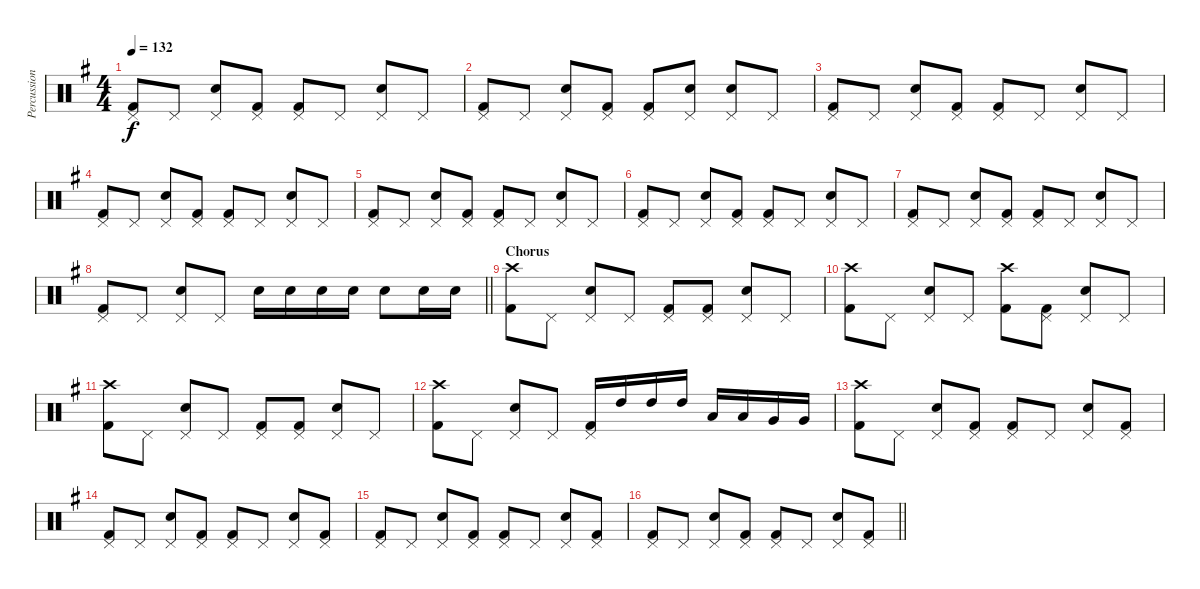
\track ("Percussion" "Percussion") {instrument percussion}
\staff {score}
\articulation defaults
\ts (4 4)
\tempo 132
\clef neutral
\ks g
("Pedal Hi-Hat (hit)" "Kick (hit) 2").8{dy f} "Pedal Hi-Hat (hit)".8 ("Pedal Hi-Hat (hit)" "Snare (hit) 2").8 ("Pedal Hi-Hat (hit)" "Kick (hit) 2").8 ("Pedal Hi-Hat (hit)" "Kick (hit) 2").8 "Pedal Hi-Hat (hit)".8 ("Pedal Hi-Hat (hit)" "Snare (hit) 2").8 "Pedal Hi-Hat (hit)".8 |
("Pedal Hi-Hat (hit)" "Kick (hit) 2").8 "Pedal Hi-Hat (hit)".8 ("Pedal Hi-Hat (hit)" "Snare (hit) 2").8 ("Pedal Hi-Hat (hit)" "Kick (hit) 2").8 ("Pedal Hi-Hat (hit)" "Kick (hit) 2").8 ("Pedal Hi-Hat (hit)" "Snare (hit) 2").8 ("Pedal Hi-Hat (hit)" "Snare (hit) 2").8 "Pedal Hi-Hat (hit)".8 |
("Pedal Hi-Hat (hit)" "Kick (hit) 2").8 "Pedal Hi-Hat (hit)".8 ("Pedal Hi-Hat (hit)" "Snare (hit) 2").8 ("Pedal Hi-Hat (hit)" "Kick (hit) 2").8 ("Pedal Hi-Hat (hit)" "Kick (hit) 2").8 "Pedal Hi-Hat (hit)".8 ("Pedal Hi-Hat (hit)" "Snare (hit) 2").8 "Pedal Hi-Hat (hit)".8 |
("Pedal Hi-Hat (hit)" "Kick (hit) 2").8 "Pedal Hi-Hat (hit)".8 ("Pedal Hi-Hat (hit)" "Snare (hit) 2").8 ("Pedal Hi-Hat (hit)" "Kick (hit) 2").8 ("Pedal Hi-Hat (hit)" "Kick (hit) 2").8 "Pedal Hi-Hat (hit)".8 ("Pedal Hi-Hat (hit)" "Snare (hit) 2").8 "Pedal Hi-Hat (hit)".8 |
("Pedal Hi-Hat (hit)" "Kick (hit) 2").8 "Pedal Hi-Hat (hit)".8 ("Pedal Hi-Hat (hit)" "Snare (hit) 2").8 ("Pedal Hi-Hat (hit)" "Kick (hit) 2").8 ("Pedal Hi-Hat (hit)" "Kick (hit) 2").8 "Pedal Hi-Hat (hit)".8 ("Pedal Hi-Hat (hit)" "Snare (hit) 2").8 "Pedal Hi-Hat (hit)".8 |
("Pedal Hi-Hat (hit)" "Kick (hit) 2").8 "Pedal Hi-Hat (hit)".8 ("Pedal Hi-Hat (hit)" "Snare (hit) 2").8 ("Pedal Hi-Hat (hit)" "Kick (hit) 2").8 ("Pedal Hi-Hat (hit)" "Kick (hit) 2").8 "Pedal Hi-Hat (hit)".8 ("Pedal Hi-Hat (hit)" "Snare (hit) 2").8 "Pedal Hi-Hat (hit)".8 |
("Pedal Hi-Hat (hit)" "Kick (hit) 2").8 "Pedal Hi-Hat (hit)".8 ("Pedal Hi-Hat (hit)" "Snare (hit) 2").8 ("Pedal Hi-Hat (hit)" "Kick (hit) 2").8 ("Pedal Hi-Hat (hit)" "Kick (hit) 2").8 "Pedal Hi-Hat (hit)".8 ("Pedal Hi-Hat (hit)" "Snare (hit) 2").8 "Pedal Hi-Hat (hit)".8 |
\barLineRight lightlight
("Pedal Hi-Hat (hit)" "Kick (hit) 2").8 "Pedal Hi-Hat (hit)".8 ("Pedal Hi-Hat (hit)" "Snare (hit) 2").8 "Pedal Hi-Hat (hit)".8 "Electric Snare (hit)".16 "Electric Snare (hit)".16 "Electric Snare (hit)".16 "Electric Snare (hit)".16 "Electric Snare (hit)".8 "Electric Snare (hit)".16 "Electric Snare (hit)".16 |
\section ("" "Chorus")
("Crash high (hit)" "Kick (hit) 2").8 "Pedal Hi-Hat (hit)".8 ("Pedal Hi-Hat (hit)" "Snare (hit) 2").8 "Pedal Hi-Hat (hit)".8 ("Pedal Hi-Hat (hit)" "Kick (hit) 2").8 ("Pedal Hi-Hat (hit)" "Kick (hit) 2").8 ("Pedal Hi-Hat (hit)" "Snare (hit) 2").8 "Pedal Hi-Hat (hit)".8 |
("Crash high (hit)" "Kick (hit) 2").8 "Pedal Hi-Hat (hit)".8 ("Pedal Hi-Hat (hit)" "Snare (hit) 2").8 "Pedal Hi-Hat (hit)".8 ("Crash high (hit)" "Kick (hit) 2").8 ("Pedal Hi-Hat (hit)" "Kick (hit) 2").8 ("Pedal Hi-Hat (hit)" "Snare (hit) 2").8 "Pedal Hi-Hat (hit)".8 |
("Crash high (hit)" "Kick (hit) 2").8 "Pedal Hi-Hat (hit)".8 ("Pedal Hi-Hat (hit)" "Snare (hit) 2").8 "Pedal Hi-Hat (hit)".8 ("Pedal Hi-Hat (hit)" "Kick (hit) 2").8 ("Pedal Hi-Hat (hit)" "Kick (hit) 2").8 ("Pedal Hi-Hat (hit)" "Snare (hit) 2").8 "Pedal Hi-Hat (hit)".8 |
("Crash high (hit)" "Kick (hit) 2").8 "Pedal Hi-Hat (hit)".8 ("Pedal Hi-Hat (hit)" "Snare (hit) 2").8 "Pedal Hi-Hat (hit)".8 ("Pedal Hi-Hat (hit)" "Kick (hit) 2").16 "High Tom (hit)".16 "High Tom (hit)".16 "High Tom (hit)".16 "Low Tom (hit)".16 "Low Tom (hit)".16 "Very Low Tom (hit)".16 "Very Low Tom (hit)".16 |
("Crash high (hit)" "Kick (hit) 2").8 "Pedal Hi-Hat (hit)".8 ("Pedal Hi-Hat (hit)" "Snare (hit) 2").8 ("Pedal Hi-Hat (hit)" "Kick (hit) 2").8 ("Pedal Hi-Hat (hit)" "Kick (hit) 2").8 "Pedal Hi-Hat (hit)".8 ("Pedal Hi-Hat (hit)" "Snare (hit) 2").8 ("Pedal Hi-Hat (hit)" "Kick (hit) 2").8 |
("Pedal Hi-Hat (hit)" "Kick (hit) 2").8 "Pedal Hi-Hat (hit)".8 ("Pedal Hi-Hat (hit)" "Snare (hit) 2").8 ("Pedal Hi-Hat (hit)" "Kick (hit) 2").8 ("Pedal Hi-Hat (hit)" "Kick (hit) 2").8 "Pedal Hi-Hat (hit)".8 ("Pedal Hi-Hat (hit)" "Snare (hit) 2").8 ("Pedal Hi-Hat (hit)" "Kick (hit) 2").8 |
("Pedal Hi-Hat (hit)" "Kick (hit) 2").8 "Pedal Hi-Hat (hit)".8 ("Pedal Hi-Hat (hit)" "Snare (hit) 2").8 ("Pedal Hi-Hat (hit)" "Kick (hit) 2").8 ("Pedal Hi-Hat (hit)" "Kick (hit) 2").8 "Pedal Hi-Hat (hit)".8 ("Pedal Hi-Hat (hit)" "Snare (hit) 2").8 ("Pedal Hi-Hat (hit)" "Kick (hit) 2").8 |
\barLineRight lightlight
("Pedal Hi-Hat (hit)" "Kick (hit) 2").8 "Pedal Hi-Hat (hit)".8 ("Pedal Hi-Hat (hit)" "Snare (hit) 2").8 ("Pedal Hi-Hat (hit)" "Kick (hit) 2").8 ("Pedal Hi-Hat (hit)" "Kick (hit) 2").8 "Pedal Hi-Hat (hit)".8 ("Pedal Hi-Hat (hit)" "Snare (hit) 2").8 ("Pedal Hi-Hat (hit)" "Kick (hit) 2").8
